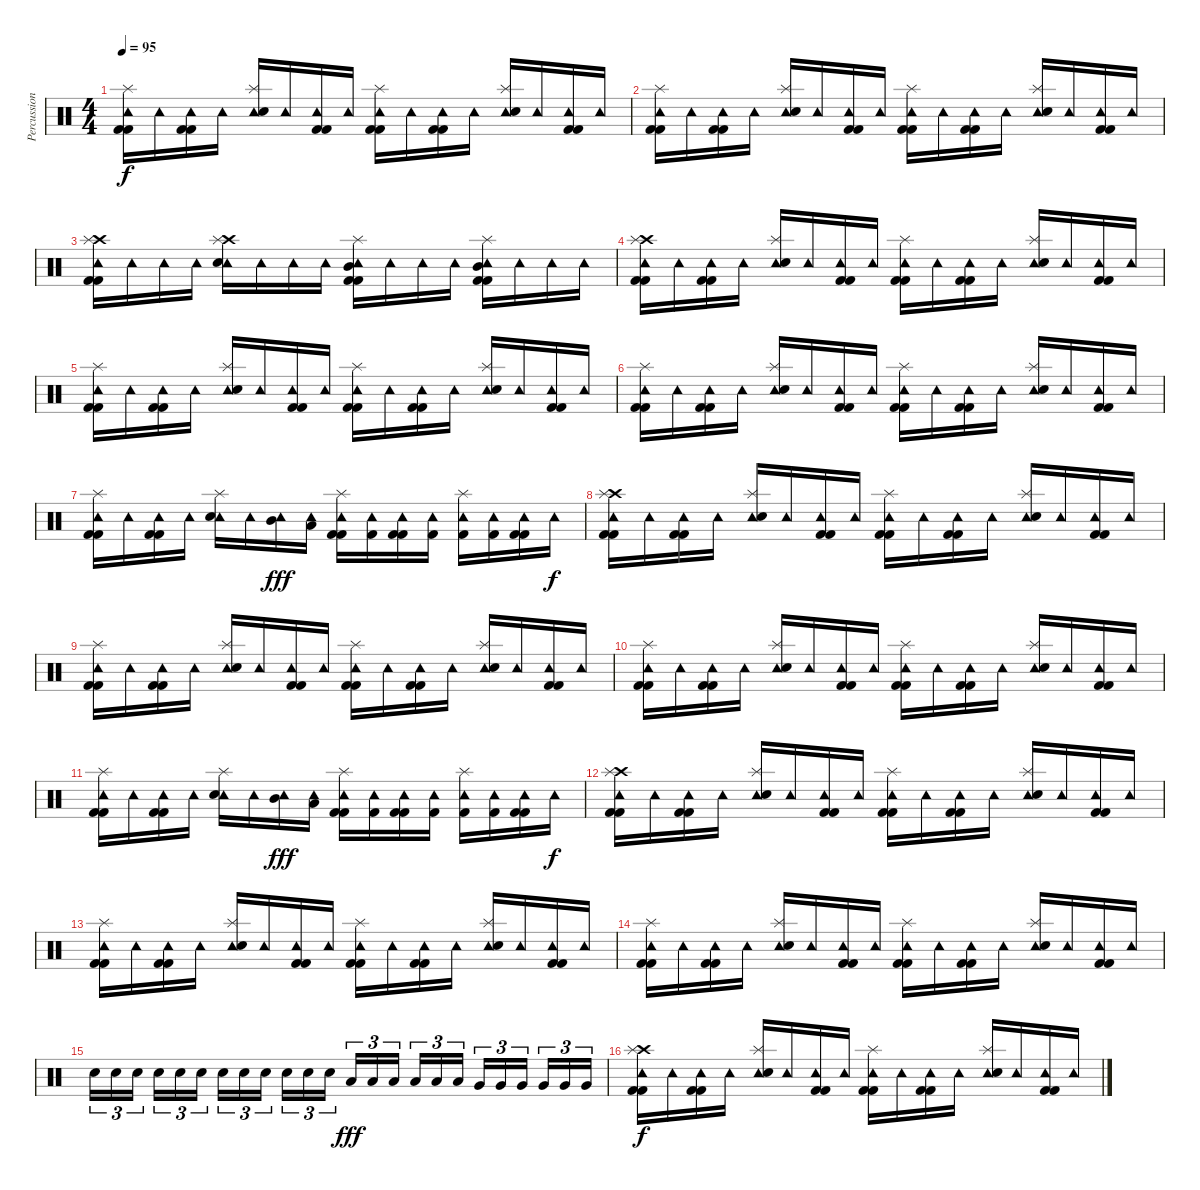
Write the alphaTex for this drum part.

\track ("Percussion" "Percussion") {instrument percussion}
\staff {score}
\articulation defaults
\ts (4 4)
\tempo 95
\clef neutral
\ks c
("Tambourine (hit)" "Kick (hit) 2" "Kick (hit) 2" "Splash (hit)").16{dy f} "Tambourine (hit)".16 ("Tambourine (hit)" "Kick (hit) 2" "Kick (hit) 2").16 "Tambourine (hit)".16 ("Tambourine (hit)" "Electric Snare (hit)" "Splash (hit)").16 "Tambourine (hit)".16 ("Tambourine (hit)" "Kick (hit) 2" "Kick (hit) 2").16 "Tambourine (hit)".16 ("Tambourine (hit)" "Kick (hit) 2" "Kick (hit) 2" "Splash (hit)").16 "Tambourine (hit)".16 ("Tambourine (hit)" "Kick (hit) 2" "Kick (hit) 2").16 "Tambourine (hit)".16 ("Tambourine (hit)" "Electric Snare (hit)" "Splash (hit)").16 "Tambourine (hit)".16 ("Tambourine (hit)" "Kick (hit) 2" "Kick (hit) 2").16 "Tambourine (hit)".16 |
("Tambourine (hit)" "Kick (hit) 2" "Kick (hit) 2" "Splash (hit)").16 "Tambourine (hit)".16 ("Tambourine (hit)" "Kick (hit) 2" "Kick (hit) 2").16 "Tambourine (hit)".16 ("Tambourine (hit)" "Electric Snare (hit)" "Splash (hit)").16 "Tambourine (hit)".16 ("Tambourine (hit)" "Kick (hit) 2" "Kick (hit) 2").16 "Tambourine (hit)".16 ("Tambourine (hit)" "Kick (hit) 2" "Kick (hit) 2" "Splash (hit)").16 "Tambourine (hit)".16 ("Tambourine (hit)" "Kick (hit) 2" "Kick (hit) 2").16 "Tambourine (hit)".16 ("Tambourine (hit)" "Electric Snare (hit)" "Splash (hit)").16 "Tambourine (hit)".16 ("Tambourine (hit)" "Kick (hit) 2" "Kick (hit) 2").16 "Tambourine (hit)".16 |
("Tambourine (hit)" "Crash high (hit)" "Kick (hit) 2" "Kick (hit) 2" "Splash (hit)").16 "Tambourine (hit)".16 "Tambourine (hit)".16 "Tambourine (hit)".16 ("Tambourine (hit)" "Crash high (hit)" "Electric Snare (hit)" "Splash (hit)").16 "Tambourine (hit)".16 "Tambourine (hit)".16 "Tambourine (hit)".16 ("Tambourine (hit)" "Mid Tom (hit)" "Kick (hit) 2" "Kick (hit) 2" "Splash (hit)").16 "Tambourine (hit)".16 "Tambourine (hit)".16 "Tambourine (hit)".16 ("Tambourine (hit)" "Mid Tom (hit)" "Kick (hit) 2" "Kick (hit) 2" "Splash (hit)").16 "Tambourine (hit)".16 "Tambourine (hit)".16 "Tambourine (hit)".16 |
("Tambourine (hit)" "Crash high (hit)" "Kick (hit) 2" "Kick (hit) 2" "Splash (hit)").16 "Tambourine (hit)".16 ("Tambourine (hit)" "Kick (hit) 2" "Kick (hit) 2").16 "Tambourine (hit)".16 ("Tambourine (hit)" "Electric Snare (hit)" "Splash (hit)").16 "Tambourine (hit)".16 ("Tambourine (hit)" "Kick (hit) 2" "Kick (hit) 2").16 "Tambourine (hit)".16 ("Tambourine (hit)" "Kick (hit) 2" "Kick (hit) 2" "Splash (hit)").16 "Tambourine (hit)".16 ("Tambourine (hit)" "Kick (hit) 2" "Kick (hit) 2").16 "Tambourine (hit)".16 ("Tambourine (hit)" "Electric Snare (hit)" "Splash (hit)").16 "Tambourine (hit)".16 ("Tambourine (hit)" "Kick (hit) 2" "Kick (hit) 2").16 "Tambourine (hit)".16 |
("Tambourine (hit)" "Kick (hit) 2" "Kick (hit) 2" "Splash (hit)").16 "Tambourine (hit)".16 ("Tambourine (hit)" "Kick (hit) 2" "Kick (hit) 2").16 "Tambourine (hit)".16 ("Tambourine (hit)" "Electric Snare (hit)" "Splash (hit)").16 "Tambourine (hit)".16 ("Tambourine (hit)" "Kick (hit) 2" "Kick (hit) 2").16 "Tambourine (hit)".16 ("Tambourine (hit)" "Kick (hit) 2" "Kick (hit) 2" "Splash (hit)").16 "Tambourine (hit)".16 ("Tambourine (hit)" "Kick (hit) 2" "Kick (hit) 2").16 "Tambourine (hit)".16 ("Tambourine (hit)" "Electric Snare (hit)" "Splash (hit)").16 "Tambourine (hit)".16 ("Tambourine (hit)" "Kick (hit) 2" "Kick (hit) 2").16 "Tambourine (hit)".16 |
("Tambourine (hit)" "Kick (hit) 2" "Kick (hit) 2" "Splash (hit)").16 "Tambourine (hit)".16 ("Tambourine (hit)" "Kick (hit) 2" "Kick (hit) 2").16 "Tambourine (hit)".16 ("Tambourine (hit)" "Electric Snare (hit)" "Splash (hit)").16 "Tambourine (hit)".16 ("Tambourine (hit)" "Kick (hit) 2" "Kick (hit) 2").16 "Tambourine (hit)".16 ("Tambourine (hit)" "Kick (hit) 2" "Kick (hit) 2" "Splash (hit)").16 "Tambourine (hit)".16 ("Tambourine (hit)" "Kick (hit) 2" "Kick (hit) 2").16 "Tambourine (hit)".16 ("Tambourine (hit)" "Electric Snare (hit)" "Splash (hit)").16 "Tambourine (hit)".16 ("Tambourine (hit)" "Kick (hit) 2" "Kick (hit) 2").16 "Tambourine (hit)".16 |
("Tambourine (hit)" "Kick (hit) 2" "Kick (hit) 2" "Splash (hit)").16 "Tambourine (hit)".16 ("Tambourine (hit)" "Kick (hit) 2" "Kick (hit) 2").16 "Tambourine (hit)".16 ("Tambourine (hit)" "Electric Snare (hit)" "Splash (hit)").16 "Tambourine (hit)".16 ("Tambourine (hit)" "Mid Tom (hit)").16{dy fff} ("Tambourine (hit)" "Low Tom (hit)").16 ("Tambourine (hit)" "Kick (hit) 2" "Kick (hit) 2" "Splash (hit)").16 ("Tambourine (hit)" "Kick (hit) 2").16 ("Tambourine (hit)" "Kick (hit) 2" "Kick (hit) 2").16 ("Tambourine (hit)" "Kick (hit) 2").16 ("Tambourine (hit)" "Kick (hit) 2" "Splash (hit)").16 ("Tambourine (hit)" "Kick (hit) 2").16 ("Tambourine (hit)" "Kick (hit) 2" "Kick (hit) 2").16 "Tambourine (hit)".16{dy f} |
("Tambourine (hit)" "Crash high (hit)" "Kick (hit) 2" "Kick (hit) 2" "Splash (hit)").16 "Tambourine (hit)".16 ("Tambourine (hit)" "Kick (hit) 2" "Kick (hit) 2").16 "Tambourine (hit)".16 ("Tambourine (hit)" "Electric Snare (hit)" "Splash (hit)").16 "Tambourine (hit)".16 ("Tambourine (hit)" "Kick (hit) 2" "Kick (hit) 2").16 "Tambourine (hit)".16 ("Tambourine (hit)" "Kick (hit) 2" "Kick (hit) 2" "Splash (hit)").16 "Tambourine (hit)".16 ("Tambourine (hit)" "Kick (hit) 2" "Kick (hit) 2").16 "Tambourine (hit)".16 ("Tambourine (hit)" "Electric Snare (hit)" "Splash (hit)").16 "Tambourine (hit)".16 ("Tambourine (hit)" "Kick (hit) 2" "Kick (hit) 2").16 "Tambourine (hit)".16 |
("Tambourine (hit)" "Kick (hit) 2" "Kick (hit) 2" "Splash (hit)").16 "Tambourine (hit)".16 ("Tambourine (hit)" "Kick (hit) 2" "Kick (hit) 2").16 "Tambourine (hit)".16 ("Tambourine (hit)" "Electric Snare (hit)" "Splash (hit)").16 "Tambourine (hit)".16 ("Tambourine (hit)" "Kick (hit) 2" "Kick (hit) 2").16 "Tambourine (hit)".16 ("Tambourine (hit)" "Kick (hit) 2" "Kick (hit) 2" "Splash (hit)").16 "Tambourine (hit)".16 ("Tambourine (hit)" "Kick (hit) 2" "Kick (hit) 2").16 "Tambourine (hit)".16 ("Tambourine (hit)" "Electric Snare (hit)" "Splash (hit)").16 "Tambourine (hit)".16 ("Tambourine (hit)" "Kick (hit) 2" "Kick (hit) 2").16 "Tambourine (hit)".16 |
("Tambourine (hit)" "Kick (hit) 2" "Kick (hit) 2" "Splash (hit)").16 "Tambourine (hit)".16 ("Tambourine (hit)" "Kick (hit) 2" "Kick (hit) 2").16 "Tambourine (hit)".16 ("Tambourine (hit)" "Electric Snare (hit)" "Splash (hit)").16 "Tambourine (hit)".16 ("Tambourine (hit)" "Kick (hit) 2" "Kick (hit) 2").16 "Tambourine (hit)".16 ("Tambourine (hit)" "Kick (hit) 2" "Kick (hit) 2" "Splash (hit)").16 "Tambourine (hit)".16 ("Tambourine (hit)" "Kick (hit) 2" "Kick (hit) 2").16 "Tambourine (hit)".16 ("Tambourine (hit)" "Electric Snare (hit)" "Splash (hit)").16 "Tambourine (hit)".16 ("Tambourine (hit)" "Kick (hit) 2" "Kick (hit) 2").16 "Tambourine (hit)".16 |
("Tambourine (hit)" "Kick (hit) 2" "Kick (hit) 2" "Splash (hit)").16 "Tambourine (hit)".16 ("Tambourine (hit)" "Kick (hit) 2" "Kick (hit) 2").16 "Tambourine (hit)".16 ("Tambourine (hit)" "Electric Snare (hit)" "Splash (hit)").16 "Tambourine (hit)".16 ("Tambourine (hit)" "Mid Tom (hit)").16{dy fff} ("Tambourine (hit)" "Low Tom (hit)").16 ("Tambourine (hit)" "Kick (hit) 2" "Kick (hit) 2" "Splash (hit)").16 ("Tambourine (hit)" "Kick (hit) 2").16 ("Tambourine (hit)" "Kick (hit) 2" "Kick (hit) 2").16 ("Tambourine (hit)" "Kick (hit) 2").16 ("Tambourine (hit)" "Kick (hit) 2" "Splash (hit)").16 ("Tambourine (hit)" "Kick (hit) 2").16 ("Tambourine (hit)" "Kick (hit) 2" "Kick (hit) 2").16 "Tambourine (hit)".16{dy f} |
("Tambourine (hit)" "Crash high (hit)" "Kick (hit) 2" "Kick (hit) 2" "Splash (hit)").16 "Tambourine (hit)".16 ("Tambourine (hit)" "Kick (hit) 2" "Kick (hit) 2").16 "Tambourine (hit)".16 ("Tambourine (hit)" "Electric Snare (hit)" "Splash (hit)").16 "Tambourine (hit)".16 ("Tambourine (hit)" "Kick (hit) 2" "Kick (hit) 2").16 "Tambourine (hit)".16 ("Tambourine (hit)" "Kick (hit) 2" "Kick (hit) 2" "Splash (hit)").16 "Tambourine (hit)".16 ("Tambourine (hit)" "Kick (hit) 2" "Kick (hit) 2").16 "Tambourine (hit)".16 ("Tambourine (hit)" "Electric Snare (hit)" "Splash (hit)").16 "Tambourine (hit)".16 ("Tambourine (hit)" "Kick (hit) 2" "Kick (hit) 2").16 "Tambourine (hit)".16 |
("Tambourine (hit)" "Kick (hit) 2" "Kick (hit) 2" "Splash (hit)").16 "Tambourine (hit)".16 ("Tambourine (hit)" "Kick (hit) 2" "Kick (hit) 2").16 "Tambourine (hit)".16 ("Tambourine (hit)" "Electric Snare (hit)" "Splash (hit)").16 "Tambourine (hit)".16 ("Tambourine (hit)" "Kick (hit) 2" "Kick (hit) 2").16 "Tambourine (hit)".16 ("Tambourine (hit)" "Kick (hit) 2" "Kick (hit) 2" "Splash (hit)").16 "Tambourine (hit)".16 ("Tambourine (hit)" "Kick (hit) 2" "Kick (hit) 2").16 "Tambourine (hit)".16 ("Tambourine (hit)" "Electric Snare (hit)" "Splash (hit)").16 "Tambourine (hit)".16 ("Tambourine (hit)" "Kick (hit) 2" "Kick (hit) 2").16 "Tambourine (hit)".16 |
("Tambourine (hit)" "Kick (hit) 2" "Kick (hit) 2" "Splash (hit)").16 "Tambourine (hit)".16 ("Tambourine (hit)" "Kick (hit) 2" "Kick (hit) 2").16 "Tambourine (hit)".16 ("Tambourine (hit)" "Electric Snare (hit)" "Splash (hit)").16 "Tambourine (hit)".16 ("Tambourine (hit)" "Kick (hit) 2" "Kick (hit) 2").16 "Tambourine (hit)".16 ("Tambourine (hit)" "Kick (hit) 2" "Kick (hit) 2" "Splash (hit)").16 "Tambourine (hit)".16 ("Tambourine (hit)" "Kick (hit) 2" "Kick (hit) 2").16 "Tambourine (hit)".16 ("Tambourine (hit)" "Electric Snare (hit)" "Splash (hit)").16 "Tambourine (hit)".16 ("Tambourine (hit)" "Kick (hit) 2" "Kick (hit) 2").16 "Tambourine (hit)".16 |
"Electric Snare (hit)".16{tu (3 2)} "Electric Snare (hit)".16{tu (3 2)} "Electric Snare (hit)".16{tu (3 2)} "Electric Snare (hit)".16{tu (3 2)} "Electric Snare (hit)".16{tu (3 2)} "Electric Snare (hit)".16{tu (3 2)} "Snare (hit) 2".16{tu (3 2)} "Snare (hit) 2".16{tu (3 2)} "Snare (hit) 2".16{tu (3 2)} "Snare (hit) 2".16{tu (3 2)} "Snare (hit) 2".16{tu (3 2)} "Snare (hit) 2".16{tu (3 2)} "Low Tom (hit)".16{tu (3 2) dy fff} "Low Tom (hit)".16{tu (3 2)} "Low Tom (hit)".16{tu (3 2)} "Low Tom (hit)".16{tu (3 2)} "Low Tom (hit)".16{tu (3 2)} "Low Tom (hit)".16{tu (3 2)} "Very Low Tom (hit)".16{tu (3 2)} "Very Low Tom (hit)".16{tu (3 2)} "Very Low Tom (hit)".16{tu (3 2)} "Very Low Tom (hit)".16{tu (3 2)} "Very Low Tom (hit)".16{tu (3 2)} "Very Low Tom (hit)".16{tu (3 2)} |
("Tambourine (hit)" "Crash high (hit)" "Kick (hit) 2" "Kick (hit) 2" "Splash (hit)").16{dy f} "Tambourine (hit)".16 ("Tambourine (hit)" "Kick (hit) 2" "Kick (hit) 2").16 "Tambourine (hit)".16 ("Tambourine (hit)" "Electric Snare (hit)" "Splash (hit)").16 "Tambourine (hit)".16 ("Tambourine (hit)" "Kick (hit) 2" "Kick (hit) 2").16 "Tambourine (hit)".16 ("Tambourine (hit)" "Kick (hit) 2" "Kick (hit) 2" "Splash (hit)").16 "Tambourine (hit)".16 ("Tambourine (hit)" "Kick (hit) 2" "Kick (hit) 2").16 "Tambourine (hit)".16 ("Tambourine (hit)" "Electric Snare (hit)" "Splash (hit)").16 "Tambourine (hit)".16 ("Tambourine (hit)" "Kick (hit) 2" "Kick (hit) 2").16 "Tambourine (hit)".16
